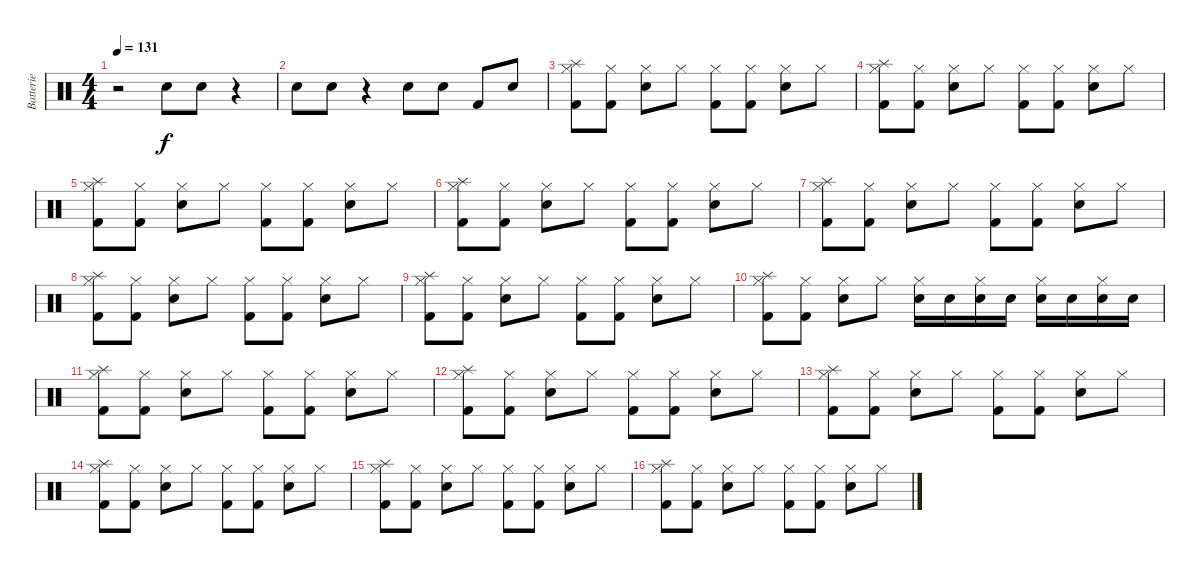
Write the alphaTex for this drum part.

\track ("Batterie" "Batterie") {instrument percussion}
\staff {score}
\articulation defaults
\ts (4 4)
\tempo 131
\clef neutral
\ks c
r.2{dy f} "Snare (hit) 2".8 "Snare (hit) 2".8 r.4 |
"Snare (hit) 2".8 "Snare (hit) 2".8 r.4 "Snare (hit) 2".8 "Snare (hit) 2".8 "Kick (hit) 2".8 "Snare (hit) 2".8 |
("Splash (hit)" "Hi-Hat (closed)" "Kick (hit) 2").8 ("Hi-Hat (closed)" "Kick (hit) 2").8 ("Hi-Hat (closed)" "Snare (hit) 2").8 "Hi-Hat (closed)".8 ("Hi-Hat (closed)" "Kick (hit) 2").8 ("Hi-Hat (closed)" "Kick (hit) 2").8 ("Hi-Hat (closed)" "Snare (hit) 2").8 "Hi-Hat (closed)".8 |
("Splash (hit)" "Hi-Hat (closed)" "Kick (hit) 2").8 ("Hi-Hat (closed)" "Kick (hit) 2").8 ("Hi-Hat (closed)" "Snare (hit) 2").8 "Hi-Hat (closed)".8 ("Hi-Hat (closed)" "Kick (hit) 2").8 ("Hi-Hat (closed)" "Kick (hit) 2").8 ("Hi-Hat (closed)" "Snare (hit) 2").8 "Hi-Hat (closed)".8 |
("Splash (hit)" "Hi-Hat (closed)" "Kick (hit) 2").8 ("Hi-Hat (closed)" "Kick (hit) 2").8 ("Hi-Hat (closed)" "Snare (hit) 2").8 "Hi-Hat (closed)".8 ("Hi-Hat (closed)" "Kick (hit) 2").8 ("Hi-Hat (closed)" "Kick (hit) 2").8 ("Hi-Hat (closed)" "Snare (hit) 2").8 "Hi-Hat (closed)".8 |
("Splash (hit)" "Hi-Hat (closed)" "Kick (hit) 2").8 ("Hi-Hat (closed)" "Kick (hit) 2").8 ("Hi-Hat (closed)" "Snare (hit) 2").8 "Hi-Hat (closed)".8 ("Hi-Hat (closed)" "Kick (hit) 2").8 ("Hi-Hat (closed)" "Kick (hit) 2").8 ("Hi-Hat (closed)" "Snare (hit) 2").8 "Hi-Hat (closed)".8 |
("Splash (hit)" "Hi-Hat (closed)" "Kick (hit) 2").8 ("Hi-Hat (closed)" "Kick (hit) 2").8 ("Hi-Hat (closed)" "Snare (hit) 2").8 "Hi-Hat (closed)".8 ("Hi-Hat (closed)" "Kick (hit) 2").8 ("Hi-Hat (closed)" "Kick (hit) 2").8 ("Hi-Hat (closed)" "Snare (hit) 2").8 "Hi-Hat (closed)".8 |
("Splash (hit)" "Hi-Hat (closed)" "Kick (hit) 2").8 ("Hi-Hat (closed)" "Kick (hit) 2").8 ("Hi-Hat (closed)" "Snare (hit) 2").8 "Hi-Hat (closed)".8 ("Hi-Hat (closed)" "Kick (hit) 2").8 ("Hi-Hat (closed)" "Kick (hit) 2").8 ("Hi-Hat (closed)" "Snare (hit) 2").8 "Hi-Hat (closed)".8 |
("Splash (hit)" "Hi-Hat (closed)" "Kick (hit) 2").8 ("Hi-Hat (closed)" "Kick (hit) 2").8 ("Hi-Hat (closed)" "Snare (hit) 2").8 "Hi-Hat (closed)".8 ("Hi-Hat (closed)" "Kick (hit) 2").8 ("Hi-Hat (closed)" "Kick (hit) 2").8 ("Hi-Hat (closed)" "Snare (hit) 2").8 "Hi-Hat (closed)".8 |
("Splash (hit)" "Hi-Hat (closed)" "Kick (hit) 2").8 ("Hi-Hat (closed)" "Kick (hit) 2").8 ("Hi-Hat (closed)" "Snare (hit) 2").8 "Hi-Hat (closed)".8 ("Hi-Hat (closed)" "Snare (hit) 2").16 "Snare (hit) 2".16 ("Hi-Hat (closed)" "Snare (hit) 2").16 "Snare (hit) 2".16 ("Hi-Hat (closed)" "Snare (hit) 2").16 "Snare (hit) 2".16 ("Hi-Hat (closed)" "Snare (hit) 2").16 "Snare (hit) 2".16 |
("Splash (hit)" "Hi-Hat (closed)" "Kick (hit) 2").8 ("Hi-Hat (closed)" "Kick (hit) 2").8 ("Hi-Hat (closed)" "Snare (hit) 2").8 "Hi-Hat (closed)".8 ("Hi-Hat (closed)" "Kick (hit) 2").8 ("Hi-Hat (closed)" "Kick (hit) 2").8 ("Hi-Hat (closed)" "Snare (hit) 2").8 "Hi-Hat (closed)".8 |
("Splash (hit)" "Hi-Hat (closed)" "Kick (hit) 2").8 ("Hi-Hat (closed)" "Kick (hit) 2").8 ("Hi-Hat (closed)" "Snare (hit) 2").8 "Hi-Hat (closed)".8 ("Hi-Hat (closed)" "Kick (hit) 2").8 ("Hi-Hat (closed)" "Kick (hit) 2").8 ("Hi-Hat (closed)" "Snare (hit) 2").8 "Hi-Hat (closed)".8 |
("Splash (hit)" "Hi-Hat (closed)" "Kick (hit) 2").8 ("Hi-Hat (closed)" "Kick (hit) 2").8 ("Hi-Hat (closed)" "Snare (hit) 2").8 "Hi-Hat (closed)".8 ("Hi-Hat (closed)" "Kick (hit) 2").8 ("Hi-Hat (closed)" "Kick (hit) 2").8 ("Hi-Hat (closed)" "Snare (hit) 2").8 "Hi-Hat (closed)".8 |
("Splash (hit)" "Hi-Hat (closed)" "Kick (hit) 2").8 ("Hi-Hat (closed)" "Kick (hit) 2").8 ("Hi-Hat (closed)" "Snare (hit) 2").8 "Hi-Hat (closed)".8 ("Hi-Hat (closed)" "Kick (hit) 2").8 ("Hi-Hat (closed)" "Kick (hit) 2").8 ("Hi-Hat (closed)" "Snare (hit) 2").8 "Hi-Hat (closed)".8 |
("Splash (hit)" "Hi-Hat (closed)" "Kick (hit) 2").8 ("Hi-Hat (closed)" "Kick (hit) 2").8 ("Hi-Hat (closed)" "Snare (hit) 2").8 "Hi-Hat (closed)".8 ("Hi-Hat (closed)" "Kick (hit) 2").8 ("Hi-Hat (closed)" "Kick (hit) 2").8 ("Hi-Hat (closed)" "Snare (hit) 2").8 "Hi-Hat (closed)".8 |
("Splash (hit)" "Hi-Hat (closed)" "Kick (hit) 2").8 ("Hi-Hat (closed)" "Kick (hit) 2").8 ("Hi-Hat (closed)" "Snare (hit) 2").8 "Hi-Hat (closed)".8 ("Hi-Hat (closed)" "Kick (hit) 2").8 ("Hi-Hat (closed)" "Kick (hit) 2").8 ("Hi-Hat (closed)" "Snare (hit) 2").8 "Hi-Hat (closed)".8
